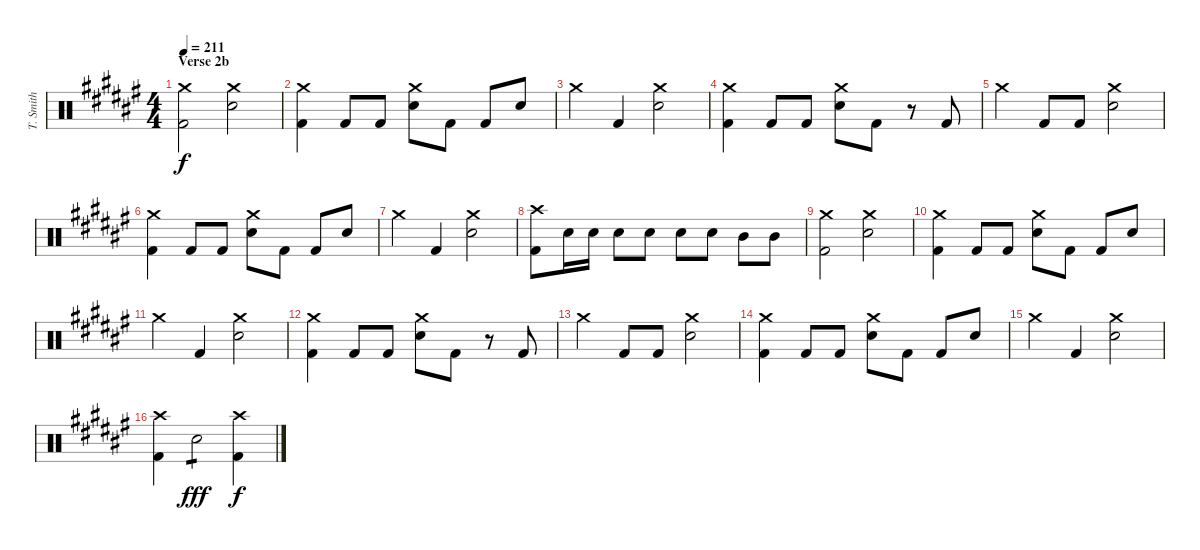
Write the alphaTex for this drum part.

\track ("T. Smith" "T. Smith") {instrument percussion}
\staff {score}
\articulation defaults
\ts (4 4)
\section ("" "Verse 2b")
\tempo 211
\clef neutral
\ks d#minor
("Crash medium (hit)" "Kick (hit) 2").2{dy f} ("Crash medium (hit)" "Electric Snare (hit)").2 |
("Crash medium (hit)" "Kick (hit) 2").4 "Kick (hit) 2".8 "Kick (hit) 2".8 ("Crash medium (hit)" "Electric Snare (hit)").8 "Kick (hit) 2".8 "Kick (hit) 2".8 "Electric Snare (hit)".8 |
"Crash medium (hit)".4 "Kick (hit) 2".4 ("Crash medium (hit)" "Electric Snare (hit)").2 |
("Crash medium (hit)" "Kick (hit) 2").4 "Kick (hit) 2".8 "Kick (hit) 2".8 ("Crash medium (hit)" "Electric Snare (hit)").8 "Kick (hit) 2".8 r.8 "Kick (hit) 2".8 |
"Crash medium (hit)".4 "Kick (hit) 2".8 "Kick (hit) 2".8 ("Crash medium (hit)" "Electric Snare (hit)").2 |
("Crash medium (hit)" "Kick (hit) 2").4 "Kick (hit) 2".8 "Kick (hit) 2".8 ("Crash medium (hit)" "Electric Snare (hit)").8 "Kick (hit) 2".8 "Kick (hit) 2".8 "Electric Snare (hit)".8 |
"Crash medium (hit)".4 "Kick (hit) 2".4 ("Crash medium (hit)" "Electric Snare (hit)").2 |
("Crash high (hit)" "Kick (hit) 2").8 "Electric Snare (hit)".16 "Electric Snare (hit)".16 "Electric Snare (hit)".8 "Electric Snare (hit)".8 "Electric Snare (hit)".8 "Electric Snare (hit)".8 "Mid Tom (hit)".8 "Mid Tom (hit)".8 |
("Crash medium (hit)" "Kick (hit) 2").2 ("Crash medium (hit)" "Electric Snare (hit)").2 |
("Crash medium (hit)" "Kick (hit) 2").4 "Kick (hit) 2".8 "Kick (hit) 2".8 ("Crash medium (hit)" "Electric Snare (hit)").8 "Kick (hit) 2".8 "Kick (hit) 2".8 "Electric Snare (hit)".8 |
"Crash medium (hit)".4 "Kick (hit) 2".4 ("Crash medium (hit)" "Electric Snare (hit)").2 |
("Crash medium (hit)" "Kick (hit) 2").4 "Kick (hit) 2".8 "Kick (hit) 2".8 ("Crash medium (hit)" "Electric Snare (hit)").8 "Kick (hit) 2".8 r.8 "Kick (hit) 2".8 |
"Crash medium (hit)".4 "Kick (hit) 2".8 "Kick (hit) 2".8 ("Crash medium (hit)" "Electric Snare (hit)").2 |
("Crash medium (hit)" "Kick (hit) 2").4 "Kick (hit) 2".8 "Kick (hit) 2".8 ("Crash medium (hit)" "Electric Snare (hit)").8 "Kick (hit) 2".8 "Kick (hit) 2".8 "Electric Snare (hit)".8 |
"Crash medium (hit)".4 "Kick (hit) 2".4 ("Crash medium (hit)" "Electric Snare (hit)").2 |
("Crash high (hit)" "Kick (hit) 2").4 "Electric Snare (hit)".2{tp 1 dy fff} ("Crash high (hit)" "Kick (hit) 2").4{dy f}
